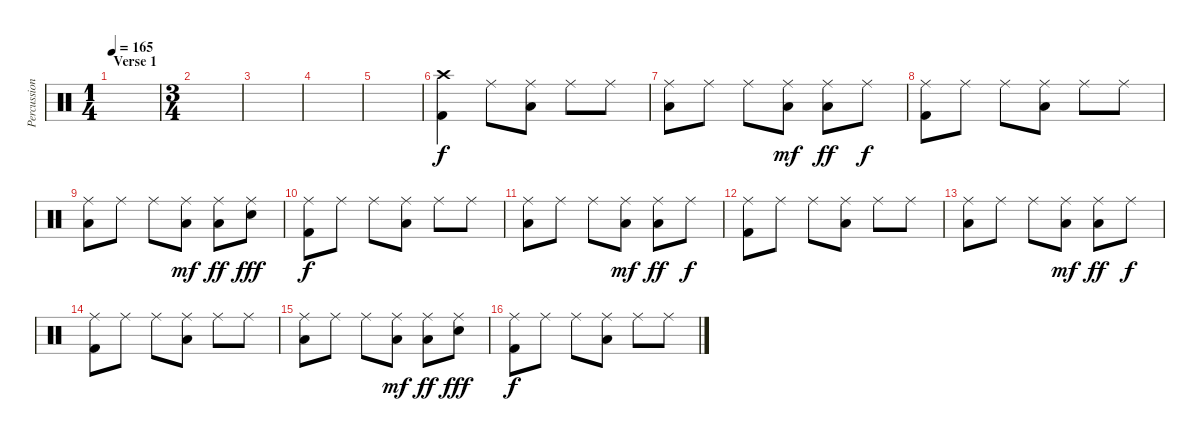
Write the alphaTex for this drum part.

\track ("Percussion" "Percussion") {instrument percussion}
\staff {score}
\articulation defaults
\ts (1 4)
\section ("" "Verse 1")
\tempo 165
\clef neutral
\ks c
|
\ts (3 4)
|
|
|
|
("Crash high (hit)" "Kick (hit) 2").4 "Ride (middle)".8 ("Ride (middle)" "Low Tom (hit)").8 "Ride (middle)".8 "Ride (middle)".8 |
("Ride (middle)" "Low Tom (hit)").8 "Ride (middle)".8 "Ride (middle)".8 ("Ride (middle)" "Low Tom (hit)").8{dy mf} ("Ride (middle)" "Low Tom (hit)").8{dy ff} "Ride (middle)".8{dy f} |
("Ride (middle)" "Kick (hit) 2").8 "Ride (middle)".8 "Ride (middle)".8 ("Ride (middle)" "Low Tom (hit)").8 "Ride (middle)".8 "Ride (middle)".8 |
("Ride (middle)" "Low Tom (hit)").8 "Ride (middle)".8 "Ride (middle)".8 ("Ride (middle)" "Low Tom (hit)").8{dy mf} ("Ride (middle)" "Low Tom (hit)").8{dy ff} ("Ride (middle)" "Electric Snare (hit)").8{dy fff} |
("Ride (middle)" "Kick (hit) 2").8{dy f} "Ride (middle)".8 "Ride (middle)".8 ("Ride (middle)" "Low Tom (hit)").8 "Ride (middle)".8 "Ride (middle)".8 |
("Ride (middle)" "Low Tom (hit)").8 "Ride (middle)".8 "Ride (middle)".8 ("Ride (middle)" "Low Tom (hit)").8{dy mf} ("Ride (middle)" "Low Tom (hit)").8{dy ff} "Ride (middle)".8{dy f} |
("Ride (middle)" "Kick (hit) 2").8 "Ride (middle)".8 "Ride (middle)".8 ("Ride (middle)" "Low Tom (hit)").8 "Ride (middle)".8 "Ride (middle)".8 |
("Ride (middle)" "Low Tom (hit)").8 "Ride (middle)".8 "Ride (middle)".8 ("Ride (middle)" "Low Tom (hit)").8{dy mf} ("Ride (middle)" "Low Tom (hit)").8{dy ff} "Ride (middle)".8{dy f} |
("Ride (middle)" "Kick (hit) 2").8 "Ride (middle)".8 "Ride (middle)".8 ("Ride (middle)" "Low Tom (hit)").8 "Ride (middle)".8 "Ride (middle)".8 |
("Ride (middle)" "Low Tom (hit)").8 "Ride (middle)".8 "Ride (middle)".8 ("Ride (middle)" "Low Tom (hit)").8{dy mf} ("Ride (middle)" "Low Tom (hit)").8{dy ff} ("Ride (middle)" "Electric Snare (hit)").8{dy fff} |
("Ride (middle)" "Kick (hit) 2").8{dy f} "Ride (middle)".8 "Ride (middle)".8 ("Ride (middle)" "Low Tom (hit)").8 "Ride (middle)".8 "Ride (middle)".8
